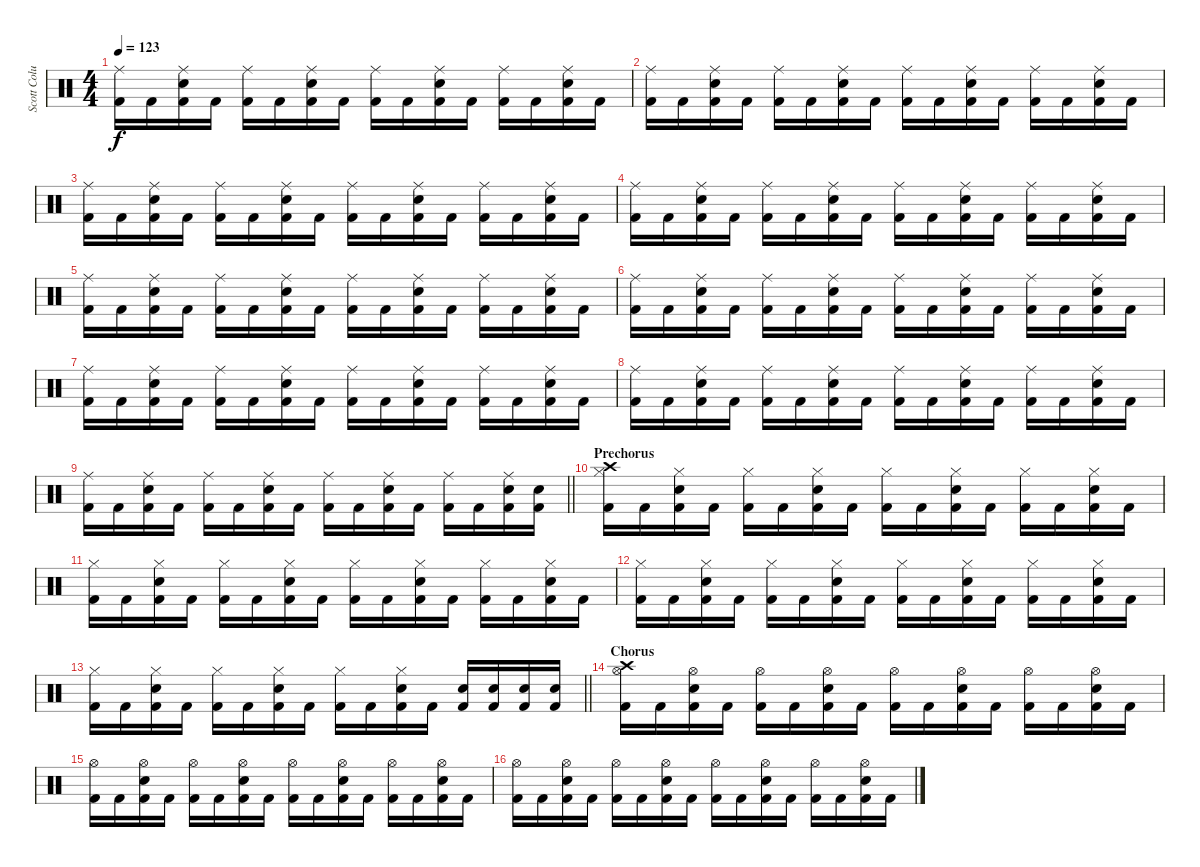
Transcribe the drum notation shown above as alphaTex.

\track ("Scott Columbus" "Scott Colu") {instrument percussion}
\staff {score}
\articulation defaults
\ts (4 4)
\tempo 123
\clef neutral
\ks c
("Kick (hit) 2" "Ride (middle)").16{dy f} "Kick (hit) 2".16 ("Kick (hit) 2" "Electric Snare (hit)" "Ride (middle)").16 "Kick (hit) 2".16 ("Kick (hit) 2" "Ride (middle)").16 "Kick (hit) 2".16 ("Kick (hit) 2" "Electric Snare (hit)" "Ride (middle)").16 "Kick (hit) 2".16 ("Kick (hit) 2" "Ride (middle)").16 "Kick (hit) 2".16 ("Kick (hit) 2" "Electric Snare (hit)" "Ride (middle)").16 "Kick (hit) 2".16 ("Kick (hit) 2" "Ride (middle)").16 "Kick (hit) 2".16 ("Kick (hit) 2" "Electric Snare (hit)" "Ride (middle)").16 "Kick (hit) 2".16 |
("Kick (hit) 2" "Ride (middle)").16 "Kick (hit) 2".16 ("Kick (hit) 2" "Electric Snare (hit)" "Ride (middle)").16 "Kick (hit) 2".16 ("Kick (hit) 2" "Ride (middle)").16 "Kick (hit) 2".16 ("Kick (hit) 2" "Electric Snare (hit)" "Ride (middle)").16 "Kick (hit) 2".16 ("Kick (hit) 2" "Ride (middle)").16 "Kick (hit) 2".16 ("Kick (hit) 2" "Electric Snare (hit)" "Ride (middle)").16 "Kick (hit) 2".16 ("Kick (hit) 2" "Ride (middle)").16 "Kick (hit) 2".16 ("Kick (hit) 2" "Electric Snare (hit)" "Ride (middle)").16 "Kick (hit) 2".16 |
("Kick (hit) 2" "Ride (middle)").16 "Kick (hit) 2".16 ("Kick (hit) 2" "Electric Snare (hit)" "Ride (middle)").16 "Kick (hit) 2".16 ("Kick (hit) 2" "Ride (middle)").16 "Kick (hit) 2".16 ("Kick (hit) 2" "Electric Snare (hit)" "Ride (middle)").16 "Kick (hit) 2".16 ("Kick (hit) 2" "Ride (middle)").16 "Kick (hit) 2".16 ("Kick (hit) 2" "Electric Snare (hit)" "Ride (middle)").16 "Kick (hit) 2".16 ("Kick (hit) 2" "Ride (middle)").16 "Kick (hit) 2".16 ("Kick (hit) 2" "Electric Snare (hit)" "Ride (middle)").16 "Kick (hit) 2".16 |
("Kick (hit) 2" "Ride (middle)").16 "Kick (hit) 2".16 ("Kick (hit) 2" "Electric Snare (hit)" "Ride (middle)").16 "Kick (hit) 2".16 ("Kick (hit) 2" "Ride (middle)").16 "Kick (hit) 2".16 ("Kick (hit) 2" "Electric Snare (hit)" "Ride (middle)").16 "Kick (hit) 2".16 ("Kick (hit) 2" "Ride (middle)").16 "Kick (hit) 2".16 ("Kick (hit) 2" "Electric Snare (hit)" "Ride (middle)").16 "Kick (hit) 2".16 ("Kick (hit) 2" "Ride (middle)").16 "Kick (hit) 2".16 ("Kick (hit) 2" "Electric Snare (hit)" "Ride (middle)").16 "Kick (hit) 2".16 |
("Kick (hit) 2" "Ride (middle)").16 "Kick (hit) 2".16 ("Kick (hit) 2" "Electric Snare (hit)" "Ride (middle)").16 "Kick (hit) 2".16 ("Kick (hit) 2" "Ride (middle)").16 "Kick (hit) 2".16 ("Kick (hit) 2" "Electric Snare (hit)" "Ride (middle)").16 "Kick (hit) 2".16 ("Kick (hit) 2" "Ride (middle)").16 "Kick (hit) 2".16 ("Kick (hit) 2" "Electric Snare (hit)" "Ride (middle)").16 "Kick (hit) 2".16 ("Kick (hit) 2" "Ride (middle)").16 "Kick (hit) 2".16 ("Kick (hit) 2" "Electric Snare (hit)" "Ride (middle)").16 "Kick (hit) 2".16 |
("Kick (hit) 2" "Ride (middle)").16 "Kick (hit) 2".16 ("Kick (hit) 2" "Electric Snare (hit)" "Ride (middle)").16 "Kick (hit) 2".16 ("Kick (hit) 2" "Ride (middle)").16 "Kick (hit) 2".16 ("Kick (hit) 2" "Electric Snare (hit)" "Ride (middle)").16 "Kick (hit) 2".16 ("Kick (hit) 2" "Ride (middle)").16 "Kick (hit) 2".16 ("Kick (hit) 2" "Electric Snare (hit)" "Ride (middle)").16 "Kick (hit) 2".16 ("Kick (hit) 2" "Ride (middle)").16 "Kick (hit) 2".16 ("Kick (hit) 2" "Electric Snare (hit)" "Ride (middle)").16 "Kick (hit) 2".16 |
("Kick (hit) 2" "Ride (middle)").16 "Kick (hit) 2".16 ("Kick (hit) 2" "Electric Snare (hit)" "Ride (middle)").16 "Kick (hit) 2".16 ("Kick (hit) 2" "Ride (middle)").16 "Kick (hit) 2".16 ("Kick (hit) 2" "Electric Snare (hit)" "Ride (middle)").16 "Kick (hit) 2".16 ("Kick (hit) 2" "Ride (middle)").16 "Kick (hit) 2".16 ("Kick (hit) 2" "Electric Snare (hit)" "Ride (middle)").16 "Kick (hit) 2".16 ("Kick (hit) 2" "Ride (middle)").16 "Kick (hit) 2".16 ("Kick (hit) 2" "Electric Snare (hit)" "Ride (middle)").16 "Kick (hit) 2".16 |
("Kick (hit) 2" "Ride (middle)").16 "Kick (hit) 2".16 ("Kick (hit) 2" "Electric Snare (hit)" "Ride (middle)").16 "Kick (hit) 2".16 ("Kick (hit) 2" "Ride (middle)").16 "Kick (hit) 2".16 ("Kick (hit) 2" "Electric Snare (hit)" "Ride (middle)").16 "Kick (hit) 2".16 ("Kick (hit) 2" "Ride (middle)").16 "Kick (hit) 2".16 ("Kick (hit) 2" "Electric Snare (hit)" "Ride (middle)").16 "Kick (hit) 2".16 ("Kick (hit) 2" "Ride (middle)").16 "Kick (hit) 2".16 ("Kick (hit) 2" "Electric Snare (hit)" "Ride (middle)").16 "Kick (hit) 2".16 |
\barLineRight lightlight
("Kick (hit) 2" "Ride (middle)").16 "Kick (hit) 2".16 ("Kick (hit) 2" "Electric Snare (hit)" "Ride (middle)").16 "Kick (hit) 2".16 ("Kick (hit) 2" "Ride (middle)").16 "Kick (hit) 2".16 ("Kick (hit) 2" "Electric Snare (hit)" "Ride (middle)").16 "Kick (hit) 2".16 ("Kick (hit) 2" "Ride (middle)").16 "Kick (hit) 2".16 ("Kick (hit) 2" "Electric Snare (hit)" "Ride (middle)").16 "Kick (hit) 2".16 ("Kick (hit) 2" "Ride (middle)").16 "Kick (hit) 2".16 ("Kick (hit) 2" "Electric Snare (hit)" "Ride (middle)").16 ("Kick (hit) 2" "Electric Snare (hit)").16 |
\section ("" "Prechorus")
("Kick (hit) 2" "Hi-Hat (closed)" "Crash high (hit)").16 "Kick (hit) 2".16 ("Kick (hit) 2" "Electric Snare (hit)" "Hi-Hat (closed)").16 "Kick (hit) 2".16 ("Kick (hit) 2" "Hi-Hat (closed)").16 "Kick (hit) 2".16 ("Kick (hit) 2" "Electric Snare (hit)" "Hi-Hat (closed)").16 "Kick (hit) 2".16 ("Kick (hit) 2" "Hi-Hat (closed)").16 "Kick (hit) 2".16 ("Kick (hit) 2" "Electric Snare (hit)" "Hi-Hat (closed)").16 "Kick (hit) 2".16 ("Kick (hit) 2" "Hi-Hat (closed)").16 "Kick (hit) 2".16 ("Kick (hit) 2" "Electric Snare (hit)" "Hi-Hat (closed)").16 "Kick (hit) 2".16 |
("Kick (hit) 2" "Hi-Hat (closed)").16 "Kick (hit) 2".16 ("Kick (hit) 2" "Electric Snare (hit)" "Hi-Hat (closed)").16 "Kick (hit) 2".16 ("Kick (hit) 2" "Hi-Hat (closed)").16 "Kick (hit) 2".16 ("Kick (hit) 2" "Electric Snare (hit)" "Hi-Hat (closed)").16 "Kick (hit) 2".16 ("Kick (hit) 2" "Hi-Hat (closed)").16 "Kick (hit) 2".16 ("Kick (hit) 2" "Electric Snare (hit)" "Hi-Hat (closed)").16 "Kick (hit) 2".16 ("Kick (hit) 2" "Hi-Hat (closed)").16 "Kick (hit) 2".16 ("Kick (hit) 2" "Electric Snare (hit)" "Hi-Hat (closed)").16 "Kick (hit) 2".16 |
("Kick (hit) 2" "Hi-Hat (closed)").16 "Kick (hit) 2".16 ("Kick (hit) 2" "Electric Snare (hit)" "Hi-Hat (closed)").16 "Kick (hit) 2".16 ("Kick (hit) 2" "Hi-Hat (closed)").16 "Kick (hit) 2".16 ("Kick (hit) 2" "Electric Snare (hit)" "Hi-Hat (closed)").16 "Kick (hit) 2".16 ("Kick (hit) 2" "Hi-Hat (closed)").16 "Kick (hit) 2".16 ("Kick (hit) 2" "Electric Snare (hit)" "Hi-Hat (closed)").16 "Kick (hit) 2".16 ("Kick (hit) 2" "Hi-Hat (closed)").16 "Kick (hit) 2".16 ("Kick (hit) 2" "Electric Snare (hit)" "Hi-Hat (closed)").16 "Kick (hit) 2".16 |
\barLineRight lightlight
("Kick (hit) 2" "Hi-Hat (closed)").16 "Kick (hit) 2".16 ("Kick (hit) 2" "Electric Snare (hit)" "Hi-Hat (closed)").16 "Kick (hit) 2".16 ("Kick (hit) 2" "Hi-Hat (closed)").16 "Kick (hit) 2".16 ("Kick (hit) 2" "Electric Snare (hit)" "Hi-Hat (closed)").16 "Kick (hit) 2".16 ("Kick (hit) 2" "Hi-Hat (closed)").16 "Kick (hit) 2".16 ("Kick (hit) 2" "Electric Snare (hit)" "Hi-Hat (closed)").16 "Kick (hit) 2".16 ("Kick (hit) 2" "Electric Snare (hit)").16 ("Kick (hit) 2" "Electric Snare (hit)").16 ("Kick (hit) 2" "Electric Snare (hit)").16 ("Kick (hit) 2" "Electric Snare (hit)").16 |
\section ("" "Chorus")
("Kick (hit) 2" "Hi-Hat (open)" "Crash high (hit)").16 "Kick (hit) 2".16 ("Kick (hit) 2" "Electric Snare (hit)" "Hi-Hat (open)").16 "Kick (hit) 2".16 ("Kick (hit) 2" "Hi-Hat (open)").16 "Kick (hit) 2".16 ("Kick (hit) 2" "Electric Snare (hit)" "Hi-Hat (open)").16 "Kick (hit) 2".16 ("Kick (hit) 2" "Hi-Hat (open)").16 "Kick (hit) 2".16 ("Kick (hit) 2" "Electric Snare (hit)" "Hi-Hat (open)").16 "Kick (hit) 2".16 ("Kick (hit) 2" "Hi-Hat (open)").16 "Kick (hit) 2".16 ("Kick (hit) 2" "Electric Snare (hit)" "Hi-Hat (open)").16 "Kick (hit) 2".16 |
("Kick (hit) 2" "Hi-Hat (open)").16 "Kick (hit) 2".16 ("Kick (hit) 2" "Electric Snare (hit)" "Hi-Hat (open)").16 "Kick (hit) 2".16 ("Kick (hit) 2" "Hi-Hat (open)").16 "Kick (hit) 2".16 ("Kick (hit) 2" "Electric Snare (hit)" "Hi-Hat (open)").16 "Kick (hit) 2".16 ("Kick (hit) 2" "Hi-Hat (open)").16 "Kick (hit) 2".16 ("Kick (hit) 2" "Electric Snare (hit)" "Hi-Hat (open)").16 "Kick (hit) 2".16 ("Kick (hit) 2" "Hi-Hat (open)").16 "Kick (hit) 2".16 ("Kick (hit) 2" "Electric Snare (hit)" "Hi-Hat (open)").16 "Kick (hit) 2".16 |
("Kick (hit) 2" "Hi-Hat (open)").16 "Kick (hit) 2".16 ("Kick (hit) 2" "Electric Snare (hit)" "Hi-Hat (open)").16 "Kick (hit) 2".16 ("Kick (hit) 2" "Hi-Hat (open)").16 "Kick (hit) 2".16 ("Kick (hit) 2" "Electric Snare (hit)" "Hi-Hat (open)").16 "Kick (hit) 2".16 ("Kick (hit) 2" "Hi-Hat (open)").16 "Kick (hit) 2".16 ("Kick (hit) 2" "Electric Snare (hit)" "Hi-Hat (open)").16 "Kick (hit) 2".16 ("Kick (hit) 2" "Hi-Hat (open)").16 "Kick (hit) 2".16 ("Kick (hit) 2" "Electric Snare (hit)" "Hi-Hat (open)").16 "Kick (hit) 2".16
